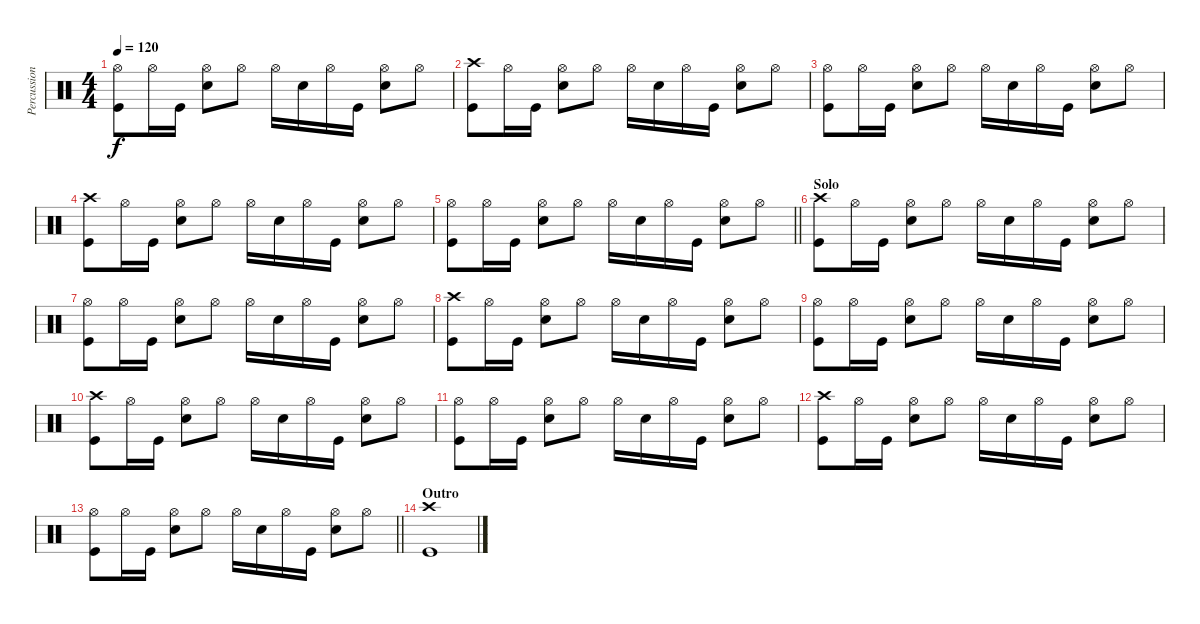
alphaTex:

\track ("Percussion" "Percussion") {instrument percussion}
\staff {score}
\articulation defaults
\ts (4 4)
\tempo 120
\clef neutral
\ks c
("Hi-Hat (open)" "Kick (hit)").8{dy f} "Hi-Hat (open)".16 "Kick (hit)".16 ("Hi-Hat (open)" "Snare (hit) 2").8 "Hi-Hat (open)".8 "Hi-Hat (open)".16 "Snare (hit) 2".16 "Hi-Hat (open)".16 "Kick (hit)".16 ("Hi-Hat (open)" "Snare (hit) 2").8 "Hi-Hat (open)".8 |
("Crash high (hit)" "Kick (hit)").8 "Hi-Hat (open)".16 "Kick (hit)".16 ("Hi-Hat (open)" "Snare (hit) 2").8 "Hi-Hat (open)".8 "Hi-Hat (open)".16 "Snare (hit) 2".16 "Hi-Hat (open)".16 "Kick (hit)".16 ("Hi-Hat (open)" "Snare (hit) 2").8 "Hi-Hat (open)".8 |
("Hi-Hat (open)" "Kick (hit)").8 "Hi-Hat (open)".16 "Kick (hit)".16 ("Hi-Hat (open)" "Snare (hit) 2").8 "Hi-Hat (open)".8 "Hi-Hat (open)".16 "Snare (hit) 2".16 "Hi-Hat (open)".16 "Kick (hit)".16 ("Hi-Hat (open)" "Snare (hit) 2").8 "Hi-Hat (open)".8 |
("Crash high (hit)" "Kick (hit)").8 "Hi-Hat (open)".16 "Kick (hit)".16 ("Hi-Hat (open)" "Snare (hit) 2").8 "Hi-Hat (open)".8 "Hi-Hat (open)".16 "Snare (hit) 2".16 "Hi-Hat (open)".16 "Kick (hit)".16 ("Hi-Hat (open)" "Snare (hit) 2").8 "Hi-Hat (open)".8 |
\barLineRight lightlight
("Hi-Hat (open)" "Kick (hit)").8 "Hi-Hat (open)".16 "Kick (hit)".16 ("Hi-Hat (open)" "Snare (hit) 2").8 "Hi-Hat (open)".8 "Hi-Hat (open)".16 "Snare (hit) 2".16 "Hi-Hat (open)".16 "Kick (hit)".16 ("Hi-Hat (open)" "Snare (hit) 2").8 "Hi-Hat (open)".8 |
\section ("" "Solo")
("Crash high (hit)" "Kick (hit)").8 "Hi-Hat (open)".16 "Kick (hit)".16 ("Hi-Hat (open)" "Snare (hit) 2").8 "Hi-Hat (open)".8 "Hi-Hat (open)".16 "Snare (hit) 2".16 "Hi-Hat (open)".16 "Kick (hit)".16 ("Hi-Hat (open)" "Snare (hit) 2").8 "Hi-Hat (open)".8 |
("Hi-Hat (open)" "Kick (hit)").8 "Hi-Hat (open)".16 "Kick (hit)".16 ("Hi-Hat (open)" "Snare (hit) 2").8 "Hi-Hat (open)".8 "Hi-Hat (open)".16 "Snare (hit) 2".16 "Hi-Hat (open)".16 "Kick (hit)".16 ("Hi-Hat (open)" "Snare (hit) 2").8 "Hi-Hat (open)".8 |
("Crash high (hit)" "Kick (hit)").8 "Hi-Hat (open)".16 "Kick (hit)".16 ("Hi-Hat (open)" "Snare (hit) 2").8 "Hi-Hat (open)".8 "Hi-Hat (open)".16 "Snare (hit) 2".16 "Hi-Hat (open)".16 "Kick (hit)".16 ("Hi-Hat (open)" "Snare (hit) 2").8 "Hi-Hat (open)".8 |
("Hi-Hat (open)" "Kick (hit)").8 "Hi-Hat (open)".16 "Kick (hit)".16 ("Hi-Hat (open)" "Snare (hit) 2").8 "Hi-Hat (open)".8 "Hi-Hat (open)".16 "Snare (hit) 2".16 "Hi-Hat (open)".16 "Kick (hit)".16 ("Hi-Hat (open)" "Snare (hit) 2").8 "Hi-Hat (open)".8 |
("Crash high (hit)" "Kick (hit)").8 "Hi-Hat (open)".16 "Kick (hit)".16 ("Hi-Hat (open)" "Snare (hit) 2").8 "Hi-Hat (open)".8 "Hi-Hat (open)".16 "Snare (hit) 2".16 "Hi-Hat (open)".16 "Kick (hit)".16 ("Hi-Hat (open)" "Snare (hit) 2").8 "Hi-Hat (open)".8 |
("Hi-Hat (open)" "Kick (hit)").8 "Hi-Hat (open)".16 "Kick (hit)".16 ("Hi-Hat (open)" "Snare (hit) 2").8 "Hi-Hat (open)".8 "Hi-Hat (open)".16 "Snare (hit) 2".16 "Hi-Hat (open)".16 "Kick (hit)".16 ("Hi-Hat (open)" "Snare (hit) 2").8 "Hi-Hat (open)".8 |
("Crash high (hit)" "Kick (hit)").8 "Hi-Hat (open)".16 "Kick (hit)".16 ("Hi-Hat (open)" "Snare (hit) 2").8 "Hi-Hat (open)".8 "Hi-Hat (open)".16 "Snare (hit) 2".16 "Hi-Hat (open)".16 "Kick (hit)".16 ("Hi-Hat (open)" "Snare (hit) 2").8 "Hi-Hat (open)".8 |
\barLineRight lightlight
("Hi-Hat (open)" "Kick (hit)").8 "Hi-Hat (open)".16 "Kick (hit)".16 ("Hi-Hat (open)" "Snare (hit) 2").8 "Hi-Hat (open)".8 "Hi-Hat (open)".16 "Snare (hit) 2".16 "Hi-Hat (open)".16 "Kick (hit)".16 ("Hi-Hat (open)" "Snare (hit) 2").8 "Hi-Hat (open)".8 |
\section ("" "Outro")
("Crash high (hit)" "Kick (hit)").1
